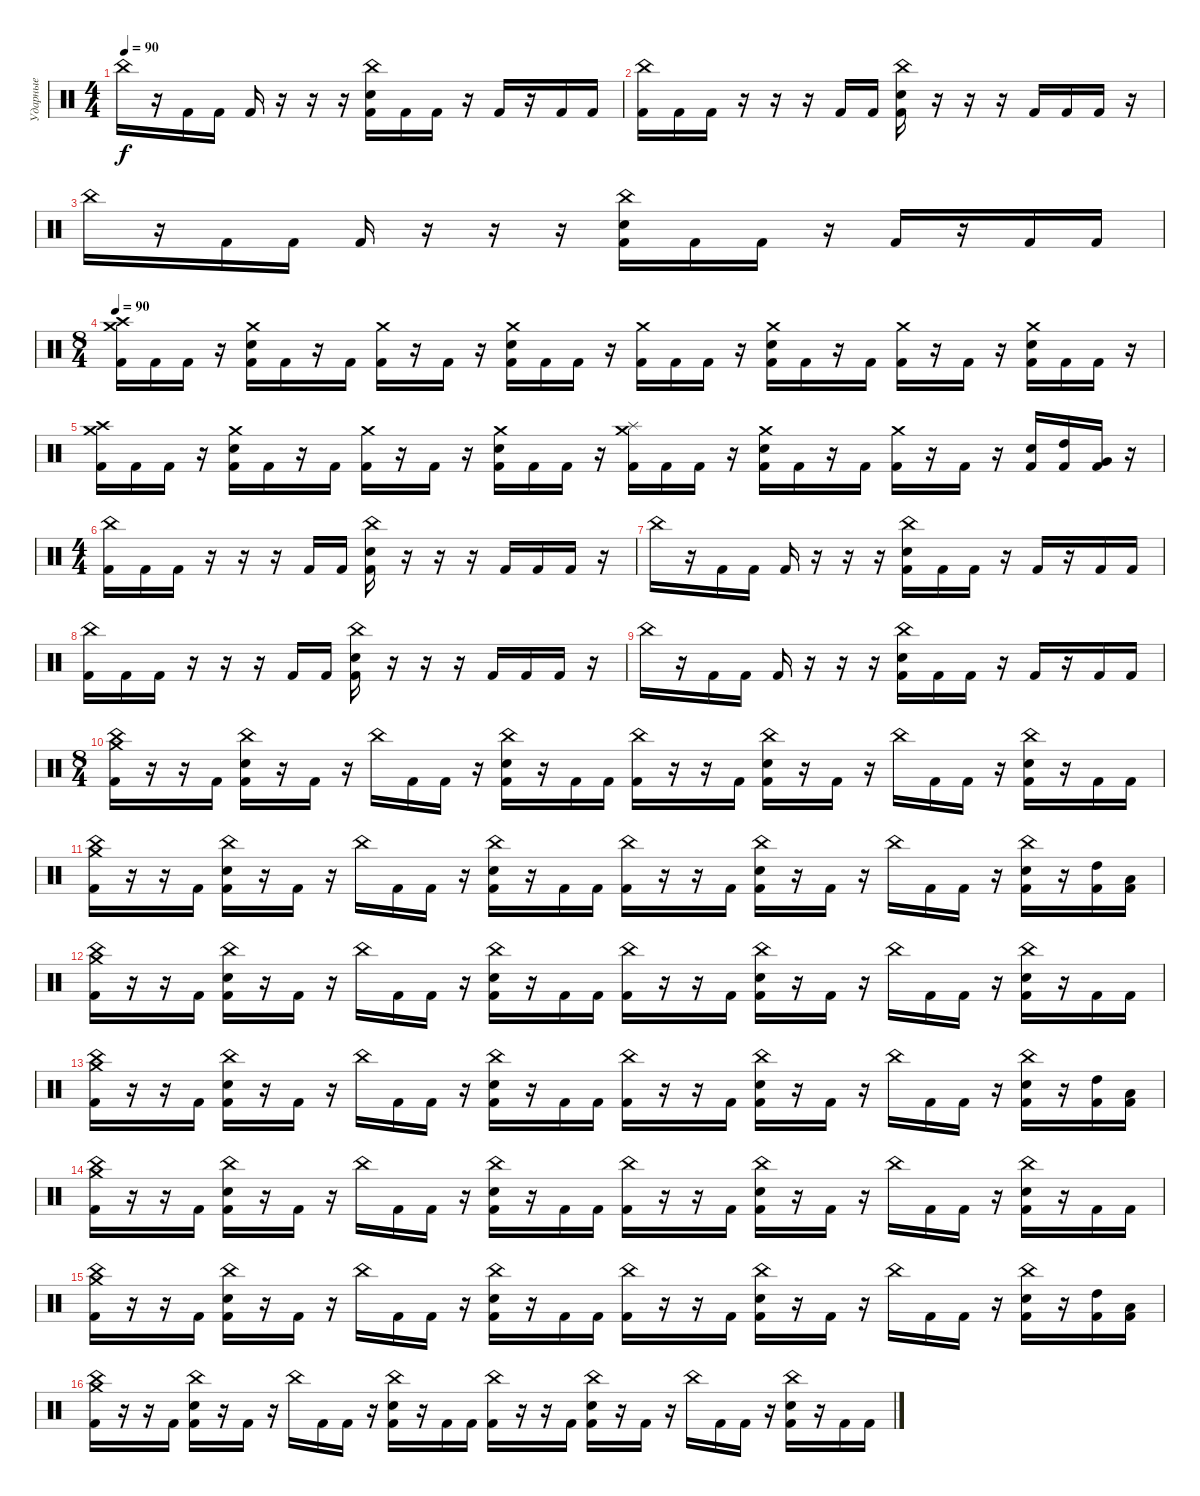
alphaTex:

\track ("Ударные" "Ударные") {instrument percussion}
\staff {score}
\articulation defaults
\ts (4 4)
\tempo 90
\clef neutral
\ks c "China (hit)".16{dy f}
r.16 "Kick (hit) 2".16 "Kick (hit) 2".16 "Kick (hit) 2".16 r.16 r.16 r.16 ("China (hit)" "Electric Snare (hit)" "Kick (hit) 2").16 "Kick (hit) 2".16 "Kick (hit) 2".16 r.16 "Kick (hit) 2".16 r.16 "Kick (hit) 2".16 "Kick (hit) 2".16 |
("China (hit)" "Kick (hit) 2").16 "Kick (hit) 2".16 "Kick (hit) 2".16 r.16 r.16 r.16 "Kick (hit) 2".16 "Kick (hit) 2".16 ("China (hit)" "Electric Snare (hit)" "Kick (hit) 2").16 r.16 r.16 r.16 "Kick (hit) 2".16 "Kick (hit) 2".16 "Kick (hit) 2".16 r.16 |
"China (hit)".16 r.16 "Kick (hit) 2".16 "Kick (hit) 2".16 "Kick (hit) 2".16 r.16 r.16 r.16 ("China (hit)" "Electric Snare (hit)" "Kick (hit) 2").16 "Kick (hit) 2".16 "Kick (hit) 2".16 r.16 "Kick (hit) 2".16 r.16 "Kick (hit) 2".16 "Kick (hit) 2".16 |
\ts (8 4)
\tempo 90
("Crash medium (hit)" "Crash high (hit)" "Kick (hit) 2").16 "Kick (hit) 2".16 "Kick (hit) 2".16 r.16 ("Crash medium (hit)" "Electric Snare (hit)" "Kick (hit) 2").16 "Kick (hit) 2".16 r.16 "Kick (hit) 2".16 ("Crash medium (hit)" "Kick (hit) 2").16 r.16 "Kick (hit) 2".16 r.16 ("Crash medium (hit)" "Electric Snare (hit)" "Kick (hit) 2").16 "Kick (hit) 2".16 "Kick (hit) 2".16 r.16 ("Crash medium (hit)" "Kick (hit) 2").16 "Kick (hit) 2".16 "Kick (hit) 2".16 r.16 ("Crash medium (hit)" "Electric Snare (hit)" "Kick (hit) 2").16 "Kick (hit) 2".16 r.16 "Kick (hit) 2".16 ("Crash medium (hit)" "Kick (hit) 2").16 r.16 "Kick (hit) 2".16 r.16 ("Crash medium (hit)" "Electric Snare (hit)" "Kick (hit) 2").16 "Kick (hit) 2".16 "Kick (hit) 2".16 r.16 |
("Crash medium (hit)" "Crash high (hit)" "Kick (hit) 2").16 "Kick (hit) 2".16 "Kick (hit) 2".16 r.16 ("Crash medium (hit)" "Electric Snare (hit)" "Kick (hit) 2").16 "Kick (hit) 2".16 r.16 "Kick (hit) 2".16 ("Crash medium (hit)" "Kick (hit) 2").16 r.16 "Kick (hit) 2".16 r.16 ("Crash medium (hit)" "Electric Snare (hit)" "Kick (hit) 2").16 "Kick (hit) 2".16 "Kick (hit) 2".16 r.16 ("Crash medium (hit)" "Splash (hit)" "Kick (hit) 2").16 "Kick (hit) 2".16 "Kick (hit) 2".16 r.16 ("Crash medium (hit)" "Electric Snare (hit)" "Kick (hit) 2").16 "Kick (hit) 2".16 r.16 "Kick (hit) 2".16 ("Crash medium (hit)" "Kick (hit) 2").16 r.16 "Kick (hit) 2".16 r.16 ("Electric Snare (hit)" "Kick (hit) 2").16 ("High Tom (hit)" "Kick (hit) 2").16 ("Very Low Tom (hit)" "Kick (hit) 2").16 r.16 |
\ts (4 4)
("China (hit)" "Kick (hit) 2").16 "Kick (hit) 2".16 "Kick (hit) 2".16 r.16 r.16 r.16 "Kick (hit) 2".16 "Kick (hit) 2".16 ("China (hit)" "Electric Snare (hit)" "Kick (hit) 2").16 r.16 r.16 r.16 "Kick (hit) 2".16 "Kick (hit) 2".16 "Kick (hit) 2".16 r.16 |
"China (hit)".16 r.16 "Kick (hit) 2".16 "Kick (hit) 2".16 "Kick (hit) 2".16 r.16 r.16 r.16 ("China (hit)" "Electric Snare (hit)" "Kick (hit) 2").16 "Kick (hit) 2".16 "Kick (hit) 2".16 r.16 "Kick (hit) 2".16 r.16 "Kick (hit) 2".16 "Kick (hit) 2".16 |
("China (hit)" "Kick (hit) 2").16 "Kick (hit) 2".16 "Kick (hit) 2".16 r.16 r.16 r.16 "Kick (hit) 2".16 "Kick (hit) 2".16 ("China (hit)" "Electric Snare (hit)" "Kick (hit) 2").16 r.16 r.16 r.16 "Kick (hit) 2".16 "Kick (hit) 2".16 "Kick (hit) 2".16 r.16 |
"China (hit)".16 r.16 "Kick (hit) 2".16 "Kick (hit) 2".16 "Kick (hit) 2".16 r.16 r.16 r.16 ("China (hit)" "Electric Snare (hit)" "Kick (hit) 2").16 "Kick (hit) 2".16 "Kick (hit) 2".16 r.16 "Kick (hit) 2".16 r.16 "Kick (hit) 2".16 "Kick (hit) 2".16 |
\ts (8 4)
("China (hit)" "Crash medium (hit)" "Kick (hit) 2").16 r.16 r.16 "Kick (hit) 2".16 ("China (hit)" "Electric Snare (hit)" "Kick (hit) 2").16 r.16 "Kick (hit) 2".16 r.16 "China (hit)".16 "Kick (hit) 2".16 "Kick (hit) 2".16 r.16 ("China (hit)" "Electric Snare (hit)" "Kick (hit) 2").16 r.16 "Kick (hit) 2".16 "Kick (hit) 2".16 ("China (hit)" "Kick (hit) 2").16 r.16 r.16 "Kick (hit) 2".16 ("China (hit)" "Electric Snare (hit)" "Kick (hit) 2").16 r.16 "Kick (hit) 2".16 r.16 "China (hit)".16 "Kick (hit) 2".16 "Kick (hit) 2".16 r.16 ("China (hit)" "Electric Snare (hit)" "Kick (hit) 2").16 r.16 "Kick (hit) 2".16 "Kick (hit) 2".16 |
("China (hit)" "Crash medium (hit)" "Kick (hit) 2").16 r.16 r.16 "Kick (hit) 2".16 ("China (hit)" "Electric Snare (hit)" "Kick (hit) 2").16 r.16 "Kick (hit) 2".16 r.16 "China (hit)".16 "Kick (hit) 2".16 "Kick (hit) 2".16 r.16 ("China (hit)" "Electric Snare (hit)" "Kick (hit) 2").16 r.16 "Kick (hit) 2".16 "Kick (hit) 2".16 ("China (hit)" "Kick (hit) 2").16 r.16 r.16 "Kick (hit) 2".16 ("China (hit)" "Electric Snare (hit)" "Kick (hit) 2").16 r.16 "Kick (hit) 2".16 r.16 "China (hit)".16 "Kick (hit) 2".16 "Kick (hit) 2".16 r.16 ("China (hit)" "Electric Snare (hit)" "Kick (hit) 2").16 r.16 ("High Tom (hit)" "Kick (hit) 2").16 ("Low Tom (hit)" "Kick (hit) 2").16 |
("China (hit)" "Crash medium (hit)" "Kick (hit) 2").16 r.16 r.16 "Kick (hit) 2".16 ("China (hit)" "Electric Snare (hit)" "Kick (hit) 2").16 r.16 "Kick (hit) 2".16 r.16 "China (hit)".16 "Kick (hit) 2".16 "Kick (hit) 2".16 r.16 ("China (hit)" "Electric Snare (hit)" "Kick (hit) 2").16 r.16 "Kick (hit) 2".16 "Kick (hit) 2".16 ("China (hit)" "Kick (hit) 2").16 r.16 r.16 "Kick (hit) 2".16 ("China (hit)" "Electric Snare (hit)" "Kick (hit) 2").16 r.16 "Kick (hit) 2".16 r.16 "China (hit)".16 "Kick (hit) 2".16 "Kick (hit) 2".16 r.16 ("China (hit)" "Electric Snare (hit)" "Kick (hit) 2").16 r.16 "Kick (hit) 2".16 "Kick (hit) 2".16 |
("China (hit)" "Crash medium (hit)" "Kick (hit) 2").16 r.16 r.16 "Kick (hit) 2".16 ("China (hit)" "Electric Snare (hit)" "Kick (hit) 2").16 r.16 "Kick (hit) 2".16 r.16 "China (hit)".16 "Kick (hit) 2".16 "Kick (hit) 2".16 r.16 ("China (hit)" "Electric Snare (hit)" "Kick (hit) 2").16 r.16 "Kick (hit) 2".16 "Kick (hit) 2".16 ("China (hit)" "Kick (hit) 2").16 r.16 r.16 "Kick (hit) 2".16 ("China (hit)" "Electric Snare (hit)" "Kick (hit) 2").16 r.16 "Kick (hit) 2".16 r.16 "China (hit)".16 "Kick (hit) 2".16 "Kick (hit) 2".16 r.16 ("China (hit)" "Electric Snare (hit)" "Kick (hit) 2").16 r.16 ("High Tom (hit)" "Kick (hit) 2").16 ("Low Tom (hit)" "Kick (hit) 2").16 |
("China (hit)" "Crash medium (hit)" "Kick (hit) 2").16 r.16 r.16 "Kick (hit) 2".16 ("China (hit)" "Electric Snare (hit)" "Kick (hit) 2").16 r.16 "Kick (hit) 2".16 r.16 "China (hit)".16 "Kick (hit) 2".16 "Kick (hit) 2".16 r.16 ("China (hit)" "Electric Snare (hit)" "Kick (hit) 2").16 r.16 "Kick (hit) 2".16 "Kick (hit) 2".16 ("China (hit)" "Kick (hit) 2").16 r.16 r.16 "Kick (hit) 2".16 ("China (hit)" "Electric Snare (hit)" "Kick (hit) 2").16 r.16 "Kick (hit) 2".16 r.16 "China (hit)".16 "Kick (hit) 2".16 "Kick (hit) 2".16 r.16 ("China (hit)" "Electric Snare (hit)" "Kick (hit) 2").16 r.16 "Kick (hit) 2".16 "Kick (hit) 2".16 |
("China (hit)" "Crash medium (hit)" "Kick (hit) 2").16 r.16 r.16 "Kick (hit) 2".16 ("China (hit)" "Electric Snare (hit)" "Kick (hit) 2").16 r.16 "Kick (hit) 2".16 r.16 "China (hit)".16 "Kick (hit) 2".16 "Kick (hit) 2".16 r.16 ("China (hit)" "Electric Snare (hit)" "Kick (hit) 2").16 r.16 "Kick (hit) 2".16 "Kick (hit) 2".16 ("China (hit)" "Kick (hit) 2").16 r.16 r.16 "Kick (hit) 2".16 ("China (hit)" "Electric Snare (hit)" "Kick (hit) 2").16 r.16 "Kick (hit) 2".16 r.16 "China (hit)".16 "Kick (hit) 2".16 "Kick (hit) 2".16 r.16 ("China (hit)" "Electric Snare (hit)" "Kick (hit) 2").16 r.16 ("High Tom (hit)" "Kick (hit) 2").16 ("Low Tom (hit)" "Kick (hit) 2").16 |
("China (hit)" "Crash medium (hit)" "Kick (hit) 2").16 r.16 r.16 "Kick (hit) 2".16 ("China (hit)" "Electric Snare (hit)" "Kick (hit) 2").16 r.16 "Kick (hit) 2".16 r.16 "China (hit)".16 "Kick (hit) 2".16 "Kick (hit) 2".16 r.16 ("China (hit)" "Electric Snare (hit)" "Kick (hit) 2").16 r.16 "Kick (hit) 2".16 "Kick (hit) 2".16 ("China (hit)" "Kick (hit) 2").16 r.16 r.16 "Kick (hit) 2".16 ("China (hit)" "Electric Snare (hit)" "Kick (hit) 2").16 r.16 "Kick (hit) 2".16 r.16 "China (hit)".16 "Kick (hit) 2".16 "Kick (hit) 2".16 r.16 ("China (hit)" "Electric Snare (hit)" "Kick (hit) 2").16 r.16 "Kick (hit) 2".16 "Kick (hit) 2".16
